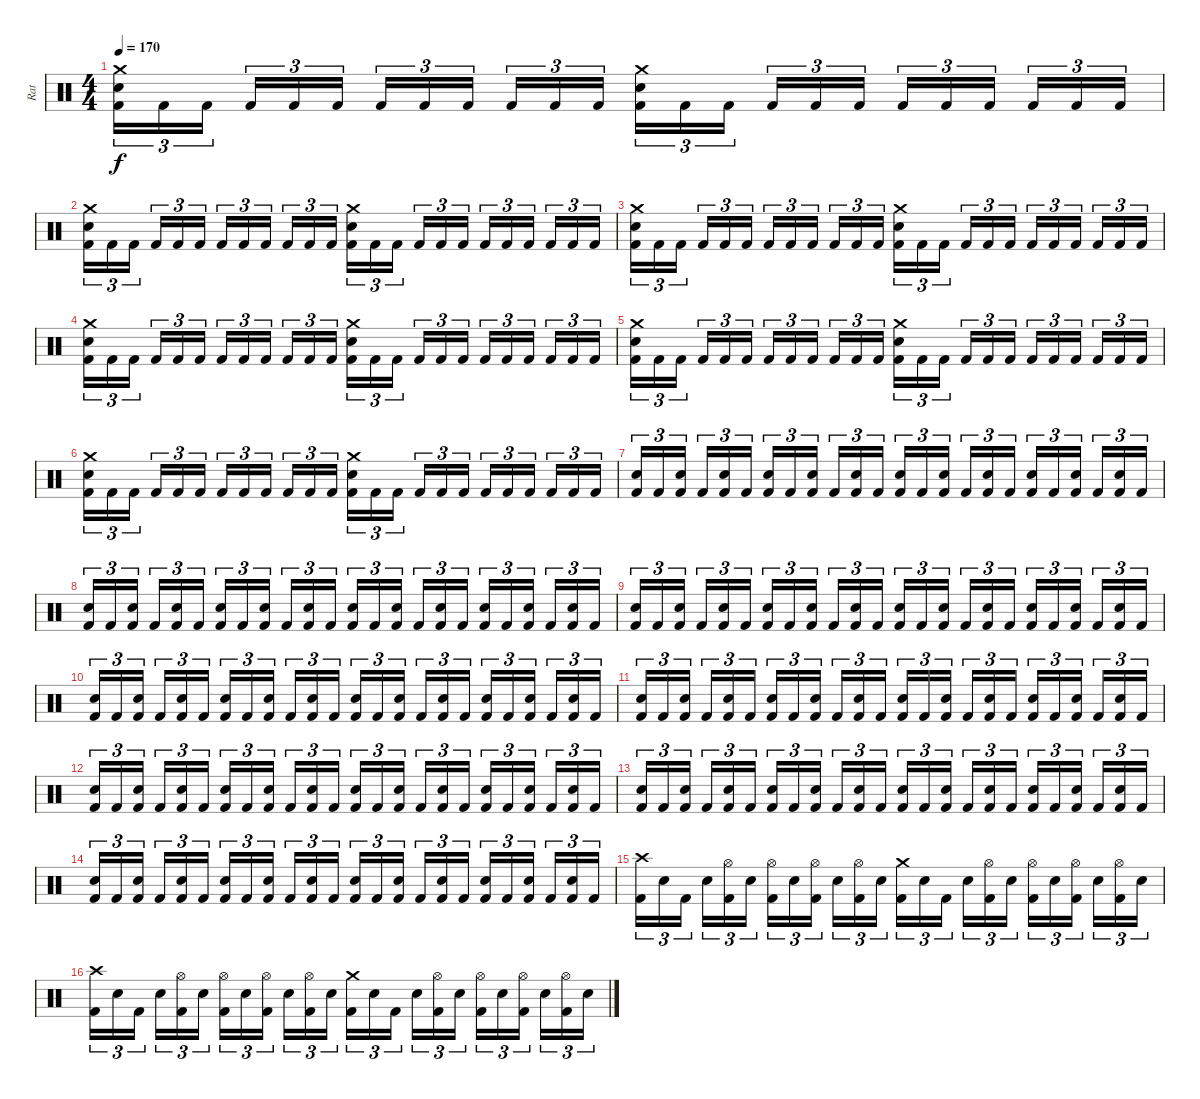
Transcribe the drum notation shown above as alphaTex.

\track ("Rat" "Rat") {instrument percussion}
\staff {score}
\articulation defaults
\ts (4 4)
\tempo 170
\clef neutral
\ks c
("Kick (hit) 2" "Electric Snare (hit)" "Crash medium (hit)").16{tu (3 2) dy f} "Kick (hit) 2".16{tu (3 2)} "Kick (hit) 2".16{tu (3 2) beam splitsecondary} "Kick (hit) 2".16{tu (3 2)} "Kick (hit) 2".16{tu (3 2)} "Kick (hit) 2".16{tu (3 2)} "Kick (hit) 2".16{tu (3 2)} "Kick (hit) 2".16{tu (3 2)} "Kick (hit) 2".16{tu (3 2) beam splitsecondary} "Kick (hit) 2".16{tu (3 2)} "Kick (hit) 2".16{tu (3 2)} "Kick (hit) 2".16{tu (3 2)} ("Kick (hit) 2" "Electric Snare (hit)" "Crash medium (hit)").16{tu (3 2)} "Kick (hit) 2".16{tu (3 2)} "Kick (hit) 2".16{tu (3 2) beam splitsecondary} "Kick (hit) 2".16{tu (3 2)} "Kick (hit) 2".16{tu (3 2)} "Kick (hit) 2".16{tu (3 2)} "Kick (hit) 2".16{tu (3 2)} "Kick (hit) 2".16{tu (3 2)} "Kick (hit) 2".16{tu (3 2) beam splitsecondary} "Kick (hit) 2".16{tu (3 2)} "Kick (hit) 2".16{tu (3 2)} "Kick (hit) 2".16{tu (3 2)} |
("Kick (hit) 2" "Electric Snare (hit)" "Crash medium (hit)").16{tu (3 2)} "Kick (hit) 2".16{tu (3 2)} "Kick (hit) 2".16{tu (3 2) beam splitsecondary} "Kick (hit) 2".16{tu (3 2)} "Kick (hit) 2".16{tu (3 2)} "Kick (hit) 2".16{tu (3 2)} "Kick (hit) 2".16{tu (3 2)} "Kick (hit) 2".16{tu (3 2)} "Kick (hit) 2".16{tu (3 2) beam splitsecondary} "Kick (hit) 2".16{tu (3 2)} "Kick (hit) 2".16{tu (3 2)} "Kick (hit) 2".16{tu (3 2)} ("Kick (hit) 2" "Electric Snare (hit)" "Crash medium (hit)").16{tu (3 2)} "Kick (hit) 2".16{tu (3 2)} "Kick (hit) 2".16{tu (3 2) beam splitsecondary} "Kick (hit) 2".16{tu (3 2)} "Kick (hit) 2".16{tu (3 2)} "Kick (hit) 2".16{tu (3 2)} "Kick (hit) 2".16{tu (3 2)} "Kick (hit) 2".16{tu (3 2)} "Kick (hit) 2".16{tu (3 2) beam splitsecondary} "Kick (hit) 2".16{tu (3 2)} "Kick (hit) 2".16{tu (3 2)} "Kick (hit) 2".16{tu (3 2)} |
("Kick (hit) 2" "Electric Snare (hit)" "Crash medium (hit)").16{tu (3 2)} "Kick (hit) 2".16{tu (3 2)} "Kick (hit) 2".16{tu (3 2) beam splitsecondary} "Kick (hit) 2".16{tu (3 2)} "Kick (hit) 2".16{tu (3 2)} "Kick (hit) 2".16{tu (3 2)} "Kick (hit) 2".16{tu (3 2)} "Kick (hit) 2".16{tu (3 2)} "Kick (hit) 2".16{tu (3 2) beam splitsecondary} "Kick (hit) 2".16{tu (3 2)} "Kick (hit) 2".16{tu (3 2)} "Kick (hit) 2".16{tu (3 2)} ("Kick (hit) 2" "Electric Snare (hit)" "Crash medium (hit)").16{tu (3 2)} "Kick (hit) 2".16{tu (3 2)} "Kick (hit) 2".16{tu (3 2) beam splitsecondary} "Kick (hit) 2".16{tu (3 2)} "Kick (hit) 2".16{tu (3 2)} "Kick (hit) 2".16{tu (3 2)} "Kick (hit) 2".16{tu (3 2)} "Kick (hit) 2".16{tu (3 2)} "Kick (hit) 2".16{tu (3 2) beam splitsecondary} "Kick (hit) 2".16{tu (3 2)} "Kick (hit) 2".16{tu (3 2)} "Kick (hit) 2".16{tu (3 2)} |
("Kick (hit) 2" "Electric Snare (hit)" "Crash medium (hit)").16{tu (3 2)} "Kick (hit) 2".16{tu (3 2)} "Kick (hit) 2".16{tu (3 2) beam splitsecondary} "Kick (hit) 2".16{tu (3 2)} "Kick (hit) 2".16{tu (3 2)} "Kick (hit) 2".16{tu (3 2)} "Kick (hit) 2".16{tu (3 2)} "Kick (hit) 2".16{tu (3 2)} "Kick (hit) 2".16{tu (3 2) beam splitsecondary} "Kick (hit) 2".16{tu (3 2)} "Kick (hit) 2".16{tu (3 2)} "Kick (hit) 2".16{tu (3 2)} ("Kick (hit) 2" "Electric Snare (hit)" "Crash medium (hit)").16{tu (3 2)} "Kick (hit) 2".16{tu (3 2)} "Kick (hit) 2".16{tu (3 2) beam splitsecondary} "Kick (hit) 2".16{tu (3 2)} "Kick (hit) 2".16{tu (3 2)} "Kick (hit) 2".16{tu (3 2)} "Kick (hit) 2".16{tu (3 2)} "Kick (hit) 2".16{tu (3 2)} "Kick (hit) 2".16{tu (3 2) beam splitsecondary} "Kick (hit) 2".16{tu (3 2)} "Kick (hit) 2".16{tu (3 2)} "Kick (hit) 2".16{tu (3 2)} |
("Kick (hit) 2" "Electric Snare (hit)" "Crash medium (hit)").16{tu (3 2)} "Kick (hit) 2".16{tu (3 2)} "Kick (hit) 2".16{tu (3 2) beam splitsecondary} "Kick (hit) 2".16{tu (3 2)} "Kick (hit) 2".16{tu (3 2)} "Kick (hit) 2".16{tu (3 2)} "Kick (hit) 2".16{tu (3 2)} "Kick (hit) 2".16{tu (3 2)} "Kick (hit) 2".16{tu (3 2) beam splitsecondary} "Kick (hit) 2".16{tu (3 2)} "Kick (hit) 2".16{tu (3 2)} "Kick (hit) 2".16{tu (3 2)} ("Kick (hit) 2" "Electric Snare (hit)" "Crash medium (hit)").16{tu (3 2)} "Kick (hit) 2".16{tu (3 2)} "Kick (hit) 2".16{tu (3 2) beam splitsecondary} "Kick (hit) 2".16{tu (3 2)} "Kick (hit) 2".16{tu (3 2)} "Kick (hit) 2".16{tu (3 2)} "Kick (hit) 2".16{tu (3 2)} "Kick (hit) 2".16{tu (3 2)} "Kick (hit) 2".16{tu (3 2) beam splitsecondary} "Kick (hit) 2".16{tu (3 2)} "Kick (hit) 2".16{tu (3 2)} "Kick (hit) 2".16{tu (3 2)} |
("Kick (hit) 2" "Electric Snare (hit)" "Crash medium (hit)").16{tu (3 2)} "Kick (hit) 2".16{tu (3 2)} "Kick (hit) 2".16{tu (3 2) beam splitsecondary} "Kick (hit) 2".16{tu (3 2)} "Kick (hit) 2".16{tu (3 2)} "Kick (hit) 2".16{tu (3 2)} "Kick (hit) 2".16{tu (3 2)} "Kick (hit) 2".16{tu (3 2)} "Kick (hit) 2".16{tu (3 2) beam splitsecondary} "Kick (hit) 2".16{tu (3 2)} "Kick (hit) 2".16{tu (3 2)} "Kick (hit) 2".16{tu (3 2)} ("Kick (hit) 2" "Electric Snare (hit)" "Crash medium (hit)").16{tu (3 2)} "Kick (hit) 2".16{tu (3 2)} "Kick (hit) 2".16{tu (3 2) beam splitsecondary} "Kick (hit) 2".16{tu (3 2)} "Kick (hit) 2".16{tu (3 2)} "Kick (hit) 2".16{tu (3 2)} "Kick (hit) 2".16{tu (3 2)} "Kick (hit) 2".16{tu (3 2)} "Kick (hit) 2".16{tu (3 2) beam splitsecondary} "Kick (hit) 2".16{tu (3 2)} "Kick (hit) 2".16{tu (3 2)} "Kick (hit) 2".16{tu (3 2)} |
("Electric Snare (hit)" "Kick (hit) 2").16{tu (3 2)} "Kick (hit) 2".16{tu (3 2)} ("Electric Snare (hit)" "Kick (hit) 2").16{tu (3 2) beam splitsecondary} "Kick (hit) 2".16{tu (3 2)} ("Electric Snare (hit)" "Kick (hit) 2").16{tu (3 2)} "Kick (hit) 2".16{tu (3 2)} ("Electric Snare (hit)" "Kick (hit) 2").16{tu (3 2)} "Kick (hit) 2".16{tu (3 2)} ("Electric Snare (hit)" "Kick (hit) 2").16{tu (3 2) beam splitsecondary} "Kick (hit) 2".16{tu (3 2)} ("Electric Snare (hit)" "Kick (hit) 2").16{tu (3 2)} "Kick (hit) 2".16{tu (3 2)} ("Electric Snare (hit)" "Kick (hit) 2").16{tu (3 2)} "Kick (hit) 2".16{tu (3 2)} ("Electric Snare (hit)" "Kick (hit) 2").16{tu (3 2) beam splitsecondary} "Kick (hit) 2".16{tu (3 2)} ("Electric Snare (hit)" "Kick (hit) 2").16{tu (3 2)} "Kick (hit) 2".16{tu (3 2)} ("Electric Snare (hit)" "Kick (hit) 2").16{tu (3 2)} "Kick (hit) 2".16{tu (3 2)} ("Electric Snare (hit)" "Kick (hit) 2").16{tu (3 2) beam splitsecondary} "Kick (hit) 2".16{tu (3 2)} ("Electric Snare (hit)" "Kick (hit) 2").16{tu (3 2)} "Kick (hit) 2".16{tu (3 2)} |
("Electric Snare (hit)" "Kick (hit) 2").16{tu (3 2)} "Kick (hit) 2".16{tu (3 2)} ("Electric Snare (hit)" "Kick (hit) 2").16{tu (3 2) beam splitsecondary} "Kick (hit) 2".16{tu (3 2)} ("Electric Snare (hit)" "Kick (hit) 2").16{tu (3 2)} "Kick (hit) 2".16{tu (3 2)} ("Electric Snare (hit)" "Kick (hit) 2").16{tu (3 2)} "Kick (hit) 2".16{tu (3 2)} ("Electric Snare (hit)" "Kick (hit) 2").16{tu (3 2) beam splitsecondary} "Kick (hit) 2".16{tu (3 2)} ("Electric Snare (hit)" "Kick (hit) 2").16{tu (3 2)} "Kick (hit) 2".16{tu (3 2)} ("Electric Snare (hit)" "Kick (hit) 2").16{tu (3 2)} "Kick (hit) 2".16{tu (3 2)} ("Electric Snare (hit)" "Kick (hit) 2").16{tu (3 2) beam splitsecondary} "Kick (hit) 2".16{tu (3 2)} ("Electric Snare (hit)" "Kick (hit) 2").16{tu (3 2)} "Kick (hit) 2".16{tu (3 2)} ("Electric Snare (hit)" "Kick (hit) 2").16{tu (3 2)} "Kick (hit) 2".16{tu (3 2)} ("Electric Snare (hit)" "Kick (hit) 2").16{tu (3 2) beam splitsecondary} "Kick (hit) 2".16{tu (3 2)} ("Electric Snare (hit)" "Kick (hit) 2").16{tu (3 2)} "Kick (hit) 2".16{tu (3 2)} |
("Electric Snare (hit)" "Kick (hit) 2").16{tu (3 2)} "Kick (hit) 2".16{tu (3 2)} ("Electric Snare (hit)" "Kick (hit) 2").16{tu (3 2) beam splitsecondary} "Kick (hit) 2".16{tu (3 2)} ("Electric Snare (hit)" "Kick (hit) 2").16{tu (3 2)} "Kick (hit) 2".16{tu (3 2)} ("Electric Snare (hit)" "Kick (hit) 2").16{tu (3 2)} "Kick (hit) 2".16{tu (3 2)} ("Electric Snare (hit)" "Kick (hit) 2").16{tu (3 2) beam splitsecondary} "Kick (hit) 2".16{tu (3 2)} ("Electric Snare (hit)" "Kick (hit) 2").16{tu (3 2)} "Kick (hit) 2".16{tu (3 2)} ("Electric Snare (hit)" "Kick (hit) 2").16{tu (3 2)} "Kick (hit) 2".16{tu (3 2)} ("Electric Snare (hit)" "Kick (hit) 2").16{tu (3 2) beam splitsecondary} "Kick (hit) 2".16{tu (3 2)} ("Electric Snare (hit)" "Kick (hit) 2").16{tu (3 2)} "Kick (hit) 2".16{tu (3 2)} ("Electric Snare (hit)" "Kick (hit) 2").16{tu (3 2)} "Kick (hit) 2".16{tu (3 2)} ("Electric Snare (hit)" "Kick (hit) 2").16{tu (3 2) beam splitsecondary} "Kick (hit) 2".16{tu (3 2)} ("Electric Snare (hit)" "Kick (hit) 2").16{tu (3 2)} "Kick (hit) 2".16{tu (3 2)} |
("Electric Snare (hit)" "Kick (hit) 2").16{tu (3 2)} "Kick (hit) 2".16{tu (3 2)} ("Electric Snare (hit)" "Kick (hit) 2").16{tu (3 2) beam splitsecondary} "Kick (hit) 2".16{tu (3 2)} ("Electric Snare (hit)" "Kick (hit) 2").16{tu (3 2)} "Kick (hit) 2".16{tu (3 2)} ("Electric Snare (hit)" "Kick (hit) 2").16{tu (3 2)} "Kick (hit) 2".16{tu (3 2)} ("Electric Snare (hit)" "Kick (hit) 2").16{tu (3 2) beam splitsecondary} "Kick (hit) 2".16{tu (3 2)} ("Electric Snare (hit)" "Kick (hit) 2").16{tu (3 2)} "Kick (hit) 2".16{tu (3 2)} ("Electric Snare (hit)" "Kick (hit) 2").16{tu (3 2)} "Kick (hit) 2".16{tu (3 2)} ("Electric Snare (hit)" "Kick (hit) 2").16{tu (3 2) beam splitsecondary} "Kick (hit) 2".16{tu (3 2)} ("Electric Snare (hit)" "Kick (hit) 2").16{tu (3 2)} "Kick (hit) 2".16{tu (3 2)} ("Electric Snare (hit)" "Kick (hit) 2").16{tu (3 2)} "Kick (hit) 2".16{tu (3 2)} ("Electric Snare (hit)" "Kick (hit) 2").16{tu (3 2) beam splitsecondary} "Kick (hit) 2".16{tu (3 2)} ("Electric Snare (hit)" "Kick (hit) 2").16{tu (3 2)} "Kick (hit) 2".16{tu (3 2)} |
("Electric Snare (hit)" "Kick (hit) 2").16{tu (3 2)} "Kick (hit) 2".16{tu (3 2)} ("Electric Snare (hit)" "Kick (hit) 2").16{tu (3 2) beam splitsecondary} "Kick (hit) 2".16{tu (3 2)} ("Electric Snare (hit)" "Kick (hit) 2").16{tu (3 2)} "Kick (hit) 2".16{tu (3 2)} ("Electric Snare (hit)" "Kick (hit) 2").16{tu (3 2)} "Kick (hit) 2".16{tu (3 2)} ("Electric Snare (hit)" "Kick (hit) 2").16{tu (3 2) beam splitsecondary} "Kick (hit) 2".16{tu (3 2)} ("Electric Snare (hit)" "Kick (hit) 2").16{tu (3 2)} "Kick (hit) 2".16{tu (3 2)} ("Electric Snare (hit)" "Kick (hit) 2").16{tu (3 2)} "Kick (hit) 2".16{tu (3 2)} ("Electric Snare (hit)" "Kick (hit) 2").16{tu (3 2) beam splitsecondary} "Kick (hit) 2".16{tu (3 2)} ("Electric Snare (hit)" "Kick (hit) 2").16{tu (3 2)} "Kick (hit) 2".16{tu (3 2)} ("Electric Snare (hit)" "Kick (hit) 2").16{tu (3 2)} "Kick (hit) 2".16{tu (3 2)} ("Electric Snare (hit)" "Kick (hit) 2").16{tu (3 2) beam splitsecondary} "Kick (hit) 2".16{tu (3 2)} ("Electric Snare (hit)" "Kick (hit) 2").16{tu (3 2)} "Kick (hit) 2".16{tu (3 2)} |
("Electric Snare (hit)" "Kick (hit) 2").16{tu (3 2)} "Kick (hit) 2".16{tu (3 2)} ("Electric Snare (hit)" "Kick (hit) 2").16{tu (3 2) beam splitsecondary} "Kick (hit) 2".16{tu (3 2)} ("Electric Snare (hit)" "Kick (hit) 2").16{tu (3 2)} "Kick (hit) 2".16{tu (3 2)} ("Electric Snare (hit)" "Kick (hit) 2").16{tu (3 2)} "Kick (hit) 2".16{tu (3 2)} ("Electric Snare (hit)" "Kick (hit) 2").16{tu (3 2) beam splitsecondary} "Kick (hit) 2".16{tu (3 2)} ("Electric Snare (hit)" "Kick (hit) 2").16{tu (3 2)} "Kick (hit) 2".16{tu (3 2)} ("Electric Snare (hit)" "Kick (hit) 2").16{tu (3 2)} "Kick (hit) 2".16{tu (3 2)} ("Electric Snare (hit)" "Kick (hit) 2").16{tu (3 2) beam splitsecondary} "Kick (hit) 2".16{tu (3 2)} ("Electric Snare (hit)" "Kick (hit) 2").16{tu (3 2)} "Kick (hit) 2".16{tu (3 2)} ("Electric Snare (hit)" "Kick (hit) 2").16{tu (3 2)} "Kick (hit) 2".16{tu (3 2)} ("Electric Snare (hit)" "Kick (hit) 2").16{tu (3 2) beam splitsecondary} "Kick (hit) 2".16{tu (3 2)} ("Electric Snare (hit)" "Kick (hit) 2").16{tu (3 2)} "Kick (hit) 2".16{tu (3 2)} |
("Electric Snare (hit)" "Kick (hit) 2").16{tu (3 2)} "Kick (hit) 2".16{tu (3 2)} ("Electric Snare (hit)" "Kick (hit) 2").16{tu (3 2) beam splitsecondary} "Kick (hit) 2".16{tu (3 2)} ("Electric Snare (hit)" "Kick (hit) 2").16{tu (3 2)} "Kick (hit) 2".16{tu (3 2)} ("Electric Snare (hit)" "Kick (hit) 2").16{tu (3 2)} "Kick (hit) 2".16{tu (3 2)} ("Electric Snare (hit)" "Kick (hit) 2").16{tu (3 2) beam splitsecondary} "Kick (hit) 2".16{tu (3 2)} ("Electric Snare (hit)" "Kick (hit) 2").16{tu (3 2)} "Kick (hit) 2".16{tu (3 2)} ("Electric Snare (hit)" "Kick (hit) 2").16{tu (3 2)} "Kick (hit) 2".16{tu (3 2)} ("Electric Snare (hit)" "Kick (hit) 2").16{tu (3 2) beam splitsecondary} "Kick (hit) 2".16{tu (3 2)} ("Electric Snare (hit)" "Kick (hit) 2").16{tu (3 2)} "Kick (hit) 2".16{tu (3 2)} ("Electric Snare (hit)" "Kick (hit) 2").16{tu (3 2)} "Kick (hit) 2".16{tu (3 2)} ("Electric Snare (hit)" "Kick (hit) 2").16{tu (3 2) beam splitsecondary} "Kick (hit) 2".16{tu (3 2)} ("Electric Snare (hit)" "Kick (hit) 2").16{tu (3 2)} "Kick (hit) 2".16{tu (3 2)} |
("Electric Snare (hit)" "Kick (hit) 2").16{tu (3 2)} "Kick (hit) 2".16{tu (3 2)} ("Electric Snare (hit)" "Kick (hit) 2").16{tu (3 2) beam splitsecondary} "Kick (hit) 2".16{tu (3 2)} ("Electric Snare (hit)" "Kick (hit) 2").16{tu (3 2)} "Kick (hit) 2".16{tu (3 2)} ("Electric Snare (hit)" "Kick (hit) 2").16{tu (3 2)} "Kick (hit) 2".16{tu (3 2)} ("Electric Snare (hit)" "Kick (hit) 2").16{tu (3 2) beam splitsecondary} "Kick (hit) 2".16{tu (3 2)} ("Electric Snare (hit)" "Kick (hit) 2").16{tu (3 2)} "Kick (hit) 2".16{tu (3 2)} ("Electric Snare (hit)" "Kick (hit) 2").16{tu (3 2)} "Kick (hit) 2".16{tu (3 2)} ("Electric Snare (hit)" "Kick (hit) 2").16{tu (3 2) beam splitsecondary} "Kick (hit) 2".16{tu (3 2)} ("Electric Snare (hit)" "Kick (hit) 2").16{tu (3 2)} "Kick (hit) 2".16{tu (3 2)} ("Electric Snare (hit)" "Kick (hit) 2").16{tu (3 2)} "Kick (hit) 2".16{tu (3 2)} ("Electric Snare (hit)" "Kick (hit) 2").16{tu (3 2) beam splitsecondary} "Kick (hit) 2".16{tu (3 2)} ("Electric Snare (hit)" "Kick (hit) 2").16{tu (3 2)} "Kick (hit) 2".16{tu (3 2)} |
("Crash high (hit)" "Kick (hit) 2").16{tu (3 2)} "Electric Snare (hit)".16{tu (3 2)} "Kick (hit) 2".16{tu (3 2) beam splitsecondary} "Electric Snare (hit)".16{tu (3 2)} ("Hi-Hat (open)" "Kick (hit) 2").16{tu (3 2)} "Electric Snare (hit)".16{tu (3 2)} ("Hi-Hat (open)" "Kick (hit) 2").16{tu (3 2)} "Electric Snare (hit)".16{tu (3 2)} ("Hi-Hat (open)" "Kick (hit) 2").16{tu (3 2) beam splitsecondary} "Electric Snare (hit)".16{tu (3 2)} ("Hi-Hat (open)" "Kick (hit) 2").16{tu (3 2)} "Electric Snare (hit)".16{tu (3 2)} ("Crash medium (hit)" "Kick (hit) 2").16{tu (3 2)} "Electric Snare (hit)".16{tu (3 2)} "Kick (hit) 2".16{tu (3 2) beam splitsecondary} "Electric Snare (hit)".16{tu (3 2)} ("Hi-Hat (open)" "Kick (hit) 2").16{tu (3 2)} "Electric Snare (hit)".16{tu (3 2)} ("Hi-Hat (open)" "Kick (hit) 2").16{tu (3 2)} "Electric Snare (hit)".16{tu (3 2)} ("Hi-Hat (open)" "Kick (hit) 2").16{tu (3 2) beam splitsecondary} "Electric Snare (hit)".16{tu (3 2)} ("Hi-Hat (open)" "Kick (hit) 2").16{tu (3 2)} "Electric Snare (hit)".16{tu (3 2)} |
("Crash high (hit)" "Kick (hit) 2").16{tu (3 2)} "Electric Snare (hit)".16{tu (3 2)} "Kick (hit) 2".16{tu (3 2) beam splitsecondary} "Electric Snare (hit)".16{tu (3 2)} ("Hi-Hat (open)" "Kick (hit) 2").16{tu (3 2)} "Electric Snare (hit)".16{tu (3 2)} ("Hi-Hat (open)" "Kick (hit) 2").16{tu (3 2)} "Electric Snare (hit)".16{tu (3 2)} ("Hi-Hat (open)" "Kick (hit) 2").16{tu (3 2) beam splitsecondary} "Electric Snare (hit)".16{tu (3 2)} ("Hi-Hat (open)" "Kick (hit) 2").16{tu (3 2)} "Electric Snare (hit)".16{tu (3 2)} ("Crash medium (hit)" "Kick (hit) 2").16{tu (3 2)} "Electric Snare (hit)".16{tu (3 2)} "Kick (hit) 2".16{tu (3 2) beam splitsecondary} "Electric Snare (hit)".16{tu (3 2)} ("Hi-Hat (open)" "Kick (hit) 2").16{tu (3 2)} "Electric Snare (hit)".16{tu (3 2)} ("Hi-Hat (open)" "Kick (hit) 2").16{tu (3 2)} "Electric Snare (hit)".16{tu (3 2)} ("Hi-Hat (open)" "Kick (hit) 2").16{tu (3 2) beam splitsecondary} "Electric Snare (hit)".16{tu (3 2)} ("Hi-Hat (open)" "Kick (hit) 2").16{tu (3 2)} "Electric Snare (hit)".16{tu (3 2)}
